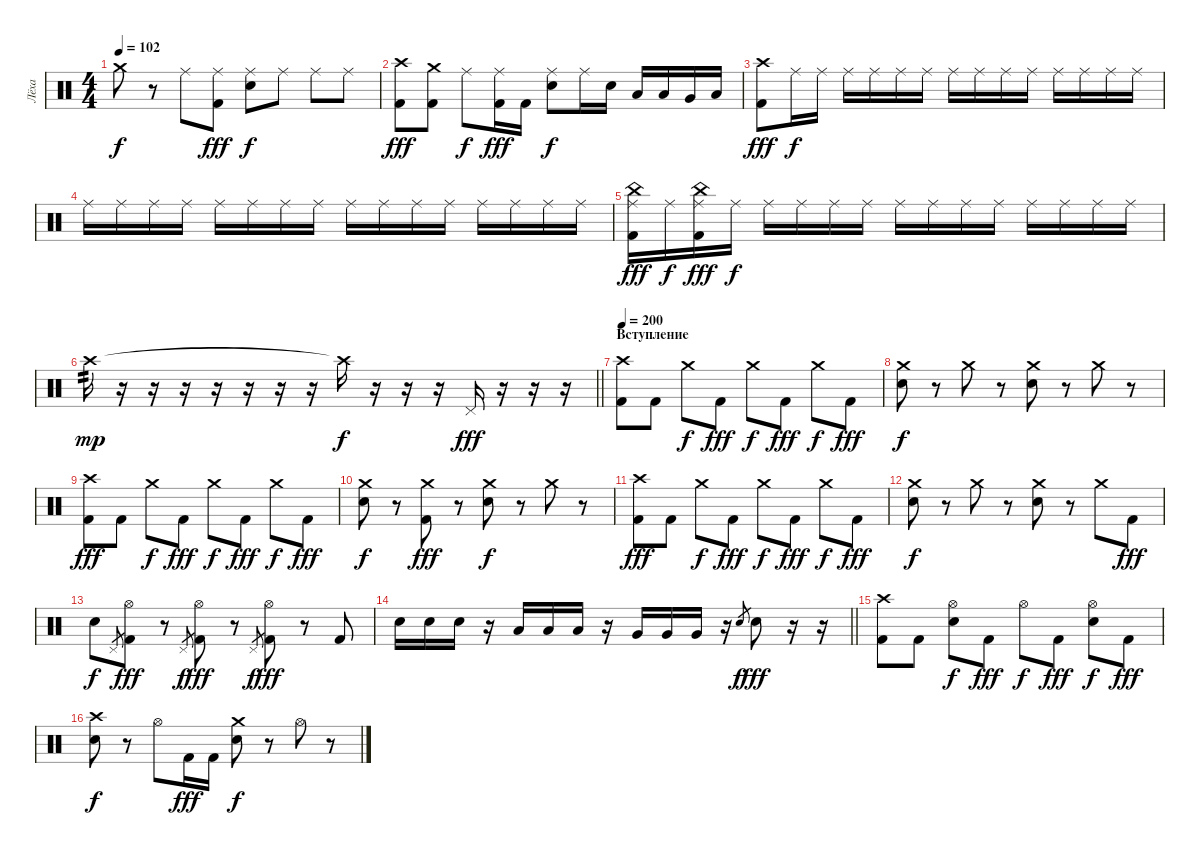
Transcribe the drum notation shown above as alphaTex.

\track ("Лёха" "Лёха") {instrument percussion}
\staff {score}
\articulation defaults
\ts (4 4)
\tempo 102
\clef neutral
\ks c "Crash medium (hit)".8{dy f}
r.8 "Ride (middle)".8 ("Ride (middle)" "Kick (hit) 2").8{dy fff} ("Ride (middle)" "Electric Snare (hit)").8{dy f} "Ride (middle)".8 "Ride (middle)".8 "Ride (middle)".8 |
("Crash high (hit)" "Kick (hit) 2").8{dy fff} ("Crash medium (hit)" "Kick (hit) 2").8 "Ride (middle)".8{dy f} ("Ride (middle)" "Kick (hit) 2").16{dy fff} "Kick (hit) 2".16 ("Ride (middle)" "Electric Snare (hit)").8{dy f} "Ride (middle)".16 "Electric Snare (hit)".16 "Low Tom (hit)".16 "Low Tom (hit)".16 "Very Low Tom (hit)".16 "Low Floor Tom (hit)".16 |
("Crash high (hit)" "Kick (hit) 2").8{dy fff} "Ride (middle)".16{dy f} "Ride (middle)".16 "Ride (middle)".16 "Ride (middle)".16 "Ride (middle)".16 "Ride (middle)".16 "Ride (middle)".16 "Ride (middle)".16 "Ride (middle)".16 "Ride (middle)".16 "Ride (middle)".16 "Ride (middle)".16 "Ride (middle)".16 "Ride (middle)".16 |
"Ride (middle)".16 "Ride (middle)".16 "Ride (middle)".16 "Ride (middle)".16 "Ride (middle)".16 "Ride (middle)".16 "Ride (middle)".16 "Ride (middle)".16 "Ride (middle)".16 "Ride (middle)".16 "Ride (middle)".16 "Ride (middle)".16 "Ride (middle)".16 "Ride (middle)".16 "Ride (middle)".16 "Ride (middle)".16 |
("Ride (middle)" "China (hit)" "Kick (hit) 2").16{dy fff} "Ride (middle)".16{dy f} ("Ride (middle)" "China (hit)" "Kick (hit) 2").16{dy fff} "Ride (middle)".16{dy f} "Ride (middle)".16 "Ride (middle)".16 "Ride (middle)".16 "Ride (middle)".16 "Ride (middle)".16 "Ride (middle)".16 "Ride (middle)".16 "Ride (middle)".16 "Ride (middle)".16 "Ride (middle)".16 "Ride (middle)".16 "Ride (middle)".16{volume 8} |
\barLineRight lightlight "Crash high (hit)".16{tp 2 dy mp volume 16}
r.16 r.16 r.16 r.16 r.16 r.16 r.16 "Crash high (hit)"{t}.16{dy f} r.16 r.16 r.16 "Pedal Hi-Hat (hit)".16{dy fff} r.16 r.16 r.16 |
\section ("" "Вступление")
\tempo 200
("Crash high (hit)" "Kick (hit) 2").8 "Kick (hit) 2".8 "Crash medium (hit)".8{dy f} "Kick (hit) 2".8{dy fff} "Crash medium (hit)".8{dy f} "Kick (hit) 2".8{dy fff} "Crash medium (hit)".8{dy f} "Kick (hit) 2".8{dy fff} |
("Crash medium (hit)" "Electric Snare (hit)").8{dy f} r.8 "Crash medium (hit)".8 r.8 ("Crash medium (hit)" "Electric Snare (hit)").8 r.8 "Crash medium (hit)".8 r.8 |
("Crash high (hit)" "Kick (hit) 2").8{dy fff} "Kick (hit) 2".8 "Crash medium (hit)".8{dy f} "Kick (hit) 2".8{dy fff} "Crash medium (hit)".8{dy f} "Kick (hit) 2".8{dy fff} "Crash medium (hit)".8{dy f} "Kick (hit) 2".8{dy fff} |
("Crash medium (hit)" "Electric Snare (hit)").8{dy f} r.8 ("Crash medium (hit)" "Kick (hit) 2").8{dy fff} r.8 ("Crash medium (hit)" "Electric Snare (hit)").8{dy f} r.8 "Crash medium (hit)".8 r.8 |
("Crash high (hit)" "Kick (hit) 2").8{dy fff} "Kick (hit) 2".8 "Crash medium (hit)".8{dy f} "Kick (hit) 2".8{dy fff} "Crash medium (hit)".8{dy f} "Kick (hit) 2".8{dy fff} "Crash medium (hit)".8{dy f} "Kick (hit) 2".8{dy fff} |
("Crash medium (hit)" "Electric Snare (hit)").8{dy f} r.8 "Crash medium (hit)".8 r.8 ("Crash medium (hit)" "Electric Snare (hit)").8 r.8 "Crash medium (hit)".8 "Kick (hit) 2".8{dy fff} |
"Electric Snare (hit)".8{dy f} "Pedal Hi-Hat (hit)".8{gr} ("Hi-Hat (open)" "Kick (hit) 2").8{dy fff} r.8{volume 0} "Pedal Hi-Hat (hit)".8{gr dy f} ("Hi-Hat (open)" "Kick (hit) 2").8{dy fff volume 12} r.8{volume 0} "Pedal Hi-Hat (hit)".8{gr dy f} ("Hi-Hat (open)" "Kick (hit) 2").8{dy fff volume 12} r.8{volume 0} "Kick (hit) 2".8{volume 12} |
\barLineRight lightlight "Electric Snare (hit)".16 "Electric Snare (hit)".16 "Electric Snare (hit)".16
r.16 "Low Tom (hit)".16 "Low Tom (hit)".16 "Low Tom (hit)".16 r.16 "Very Low Tom (hit)".16 "Very Low Tom (hit)".16 "Very Low Tom (hit)".16 r.16 "Electric Snare (hit)".8{gr dy f} "Electric Snare (hit)".8{dy fff} r.16 r.16 |
\section ("" "")
("Crash high (hit)" "Kick (hit) 2").8 "Kick (hit) 2".8 ("Hi-Hat (open)" "Electric Snare (hit)").8{dy f} "Kick (hit) 2".8{dy fff} "Hi-Hat (open)".8{dy f} "Kick (hit) 2".8{dy fff} ("Hi-Hat (open)" "Electric Snare (hit)").8{dy f} "Kick (hit) 2".8{dy fff} |
("Crash high (hit)" "Electric Snare (hit)").8{dy f} r.8 "Hi-Hat (open)".8 "Kick (hit) 2".16{dy fff} "Kick (hit) 2".16 ("Crash medium (hit)" "Electric Snare (hit)").8{dy f} r.8 "Hi-Hat (open)".8 r.8
